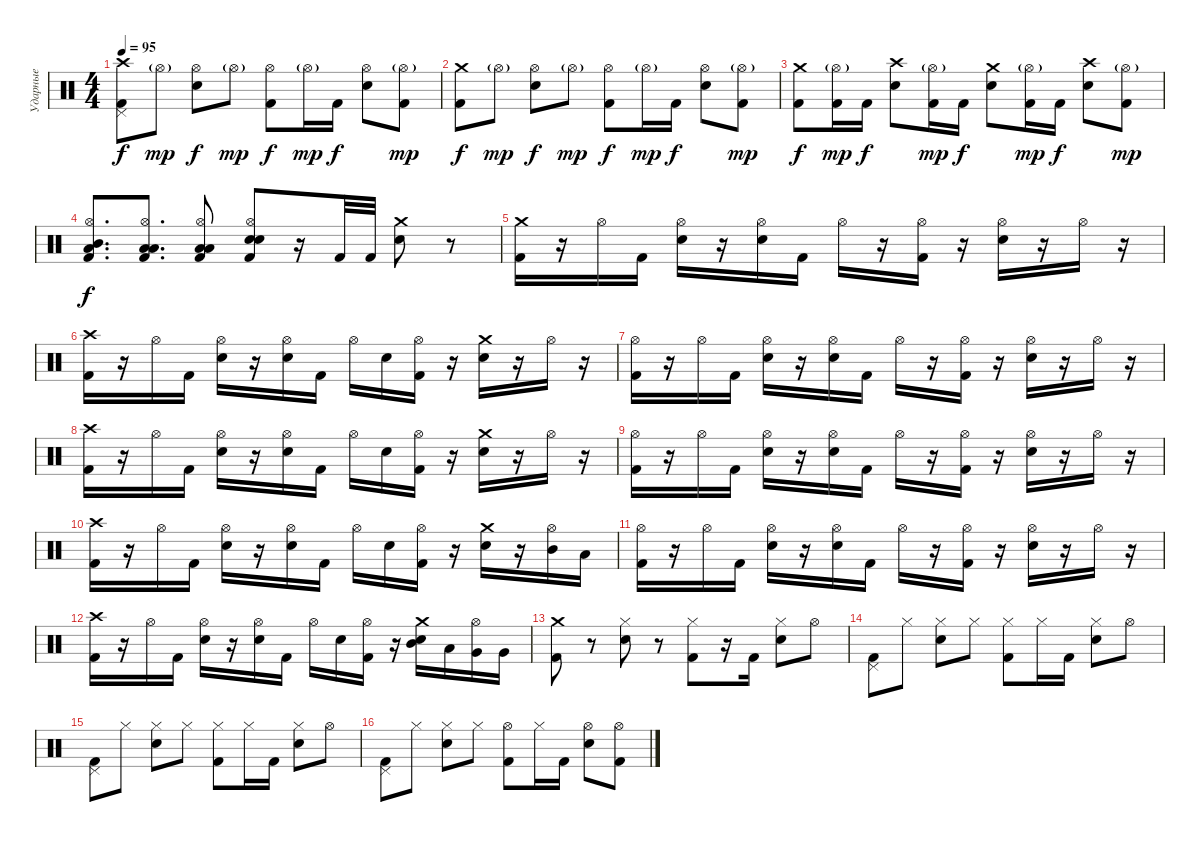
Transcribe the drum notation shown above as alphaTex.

\track ("Ударные" "Ударные") {instrument percussion}
\staff {score}
\articulation defaults
\ts (4 4)
\tempo 95
\clef neutral
\ks c
("Crash high (hit)" "Pedal Hi-Hat (hit)" "Kick (hit) 2").8{dy f} "Hi-Hat (open)"{g}.8{dy mp} ("Hi-Hat (open)" "Snare (hit) 2").8{dy f} "Hi-Hat (open)"{g}.8{dy mp} ("Hi-Hat (open)" "Kick (hit) 2").8{dy f} "Hi-Hat (open)"{g}.16{dy mp} "Kick (hit) 2".16{dy f} ("Hi-Hat (open)" "Snare (hit) 2").8 ("Hi-Hat (open)"{g} "Kick (hit) 2").8{dy mp} |
("Crash medium (hit)" "Kick (hit) 2").8{dy f} "Hi-Hat (open)"{g}.8{dy mp} ("Hi-Hat (open)" "Snare (hit) 2").8{dy f} "Hi-Hat (open)"{g}.8{dy mp} ("Hi-Hat (open)" "Kick (hit) 2").8{dy f} "Hi-Hat (open)"{g}.16{dy mp} "Kick (hit) 2".16{dy f} ("Hi-Hat (open)" "Snare (hit) 2").8 ("Hi-Hat (open)"{g} "Kick (hit) 2").8{dy mp} |
("Crash medium (hit)" "Kick (hit) 2").8{dy f} ("Hi-Hat (open)"{g} "Kick (hit) 2").16{dy mp} "Kick (hit) 2".16{dy f} ("Crash high (hit)" "Snare (hit) 2").8 ("Hi-Hat (open)"{g} "Kick (hit) 2").16{dy mp} "Kick (hit) 2".16{dy f} ("Crash medium (hit)" "Snare (hit) 2").8 ("Hi-Hat (open)"{g} "Kick (hit) 2").16{dy mp} "Kick (hit) 2".16{dy f} ("Crash high (hit)" "Snare (hit) 2").8 ("Hi-Hat (open)"{g} "Kick (hit) 2").8{dy mp} |
("Hi-Hat (open)" "Low Floor Tom (hit)" "Mid Tom (hit)" "Kick (hit) 2").8{d dy f} ("Hi-Hat (open)" "Low Floor Tom (hit)" "Low Tom (hit)" "Kick (hit) 2").8{d} ("Hi-Hat (open)" "Low Floor Tom (hit)" "Low Tom (hit)" "Kick (hit) 2").8 ("Hi-Hat (open)" "Electric Snare (hit)" "Snare (hit) 2" "Kick (hit) 2").8 r.16 "Kick (hit) 2".32 "Kick (hit) 2".32 ("Crash medium (hit)" "Snare (hit) 2").8 r.8 |
("Crash medium (hit)" "Kick (hit) 2").16 r.16 "Hi-Hat (open)".16 "Kick (hit) 2".16 ("Hi-Hat (open)" "Snare (hit) 2").16 r.16 ("Hi-Hat (open)" "Snare (hit) 2").16 "Kick (hit) 2".16 "Hi-Hat (open)".16 r.16 ("Hi-Hat (open)" "Kick (hit) 2").16 r.16 ("Hi-Hat (open)" "Snare (hit) 2").16 r.16 "Hi-Hat (open)".16 r.16 |
("Crash high (hit)" "Kick (hit) 2").16 r.16 "Hi-Hat (open)".16 "Kick (hit) 2".16 ("Hi-Hat (open)" "Snare (hit) 2").16 r.16 ("Hi-Hat (open)" "Snare (hit) 2").16 "Kick (hit) 2".16 "Hi-Hat (open)".16 "Snare (hit) 2".16 ("Hi-Hat (open)" "Kick (hit) 2").16 r.16 ("Crash medium (hit)" "Snare (hit) 2").16 r.16 "Hi-Hat (open)".16 r.16 |
("Hi-Hat (open)" "Kick (hit) 2").16 r.16 "Hi-Hat (open)".16 "Kick (hit) 2".16 ("Hi-Hat (open)" "Snare (hit) 2").16 r.16 ("Hi-Hat (open)" "Snare (hit) 2").16 "Kick (hit) 2".16 "Hi-Hat (open)".16 r.16 ("Hi-Hat (open)" "Kick (hit) 2").16 r.16 ("Hi-Hat (open)" "Snare (hit) 2").16 r.16 "Hi-Hat (open)".16 r.16 |
("Crash high (hit)" "Kick (hit) 2").16 r.16 "Hi-Hat (open)".16 "Kick (hit) 2".16 ("Hi-Hat (open)" "Snare (hit) 2").16 r.16 ("Hi-Hat (open)" "Snare (hit) 2").16 "Kick (hit) 2".16 "Hi-Hat (open)".16 "Snare (hit) 2".16 ("Hi-Hat (open)" "Kick (hit) 2").16 r.16 ("Crash medium (hit)" "Snare (hit) 2").16 r.16 "Hi-Hat (open)".16 r.16 |
("Hi-Hat (open)" "Kick (hit) 2").16 r.16 "Hi-Hat (open)".16 "Kick (hit) 2".16 ("Hi-Hat (open)" "Snare (hit) 2").16 r.16 ("Hi-Hat (open)" "Snare (hit) 2").16 "Kick (hit) 2".16 "Hi-Hat (open)".16 r.16 ("Hi-Hat (open)" "Kick (hit) 2").16 r.16 ("Hi-Hat (open)" "Snare (hit) 2").16 r.16 "Hi-Hat (open)".16 r.16 |
("Crash high (hit)" "Kick (hit) 2").16 r.16 "Hi-Hat (open)".16 "Kick (hit) 2".16 ("Hi-Hat (open)" "Snare (hit) 2").16 r.16 ("Hi-Hat (open)" "Snare (hit) 2").16 "Kick (hit) 2".16 "Hi-Hat (open)".16 "Snare (hit) 2".16 ("Hi-Hat (open)" "Kick (hit) 2").16 r.16 ("Crash medium (hit)" "Snare (hit) 2").16 r.16 ("Hi-Hat (open)" "Mid Tom (hit)").16 "Low Tom (hit)".16 |
("Hi-Hat (open)" "Kick (hit) 2").16 r.16 "Hi-Hat (open)".16 "Kick (hit) 2".16 ("Hi-Hat (open)" "Snare (hit) 2").16 r.16 ("Hi-Hat (open)" "Snare (hit) 2").16 "Kick (hit) 2".16 "Hi-Hat (open)".16 r.16 ("Hi-Hat (open)" "Kick (hit) 2").16 r.16 ("Hi-Hat (open)" "Snare (hit) 2").16 r.16 "Hi-Hat (open)".16 r.16 |
("Crash high (hit)" "Kick (hit) 2").16 r.16 "Hi-Hat (open)".16 "Kick (hit) 2".16 ("Hi-Hat (open)" "Snare (hit) 2").16 r.16 ("Hi-Hat (open)" "Snare (hit) 2").16 "Kick (hit) 2".16 "Hi-Hat (open)".16 "Snare (hit) 2".16 ("Hi-Hat (open)" "Kick (hit) 2").16 r.16 ("Crash medium (hit)" "Mid Tom (hit)" "Snare (hit) 2").16 "Low Tom (hit)".16 ("Hi-Hat (open)" "Very Low Tom (hit)").16 "Very Low Tom (hit)".16 |
("Crash medium (hit)" "Kick (hit) 2").8 r.8 ("Hi-Hat (closed)" "Snare (hit) 2").8 r.8 ("Hi-Hat (closed)" "Kick (hit) 2").8 r.16 "Kick (hit) 2".16 ("Hi-Hat (closed)" "Snare (hit) 2").8 "Hi-Hat (open)".8 |
("Pedal Hi-Hat (hit)" "Kick (hit) 2").8 "Hi-Hat (closed)".8 ("Hi-Hat (closed)" "Snare (hit) 2").8 "Hi-Hat (closed)".8 ("Hi-Hat (closed)" "Kick (hit) 2").8 "Hi-Hat (closed)".16 "Kick (hit) 2".16 ("Hi-Hat (closed)" "Snare (hit) 2").8 "Hi-Hat (open)".8 |
("Pedal Hi-Hat (hit)" "Kick (hit) 2").8 "Hi-Hat (closed)".8 ("Hi-Hat (closed)" "Snare (hit) 2").8 "Hi-Hat (closed)".8 ("Hi-Hat (closed)" "Kick (hit) 2").8 "Hi-Hat (closed)".16 "Kick (hit) 2".16 ("Hi-Hat (closed)" "Snare (hit) 2").8 "Hi-Hat (open)".8 |
("Pedal Hi-Hat (hit)" "Kick (hit) 2").8 "Hi-Hat (closed)".8 ("Hi-Hat (closed)" "Snare (hit) 2").8 "Hi-Hat (closed)".8 ("Hi-Hat (open)" "Kick (hit) 2").8 "Hi-Hat (closed)".16 "Kick (hit) 2".16 ("Hi-Hat (open)" "Snare (hit) 2").8 ("Hi-Hat (open)" "Kick (hit) 2").8
